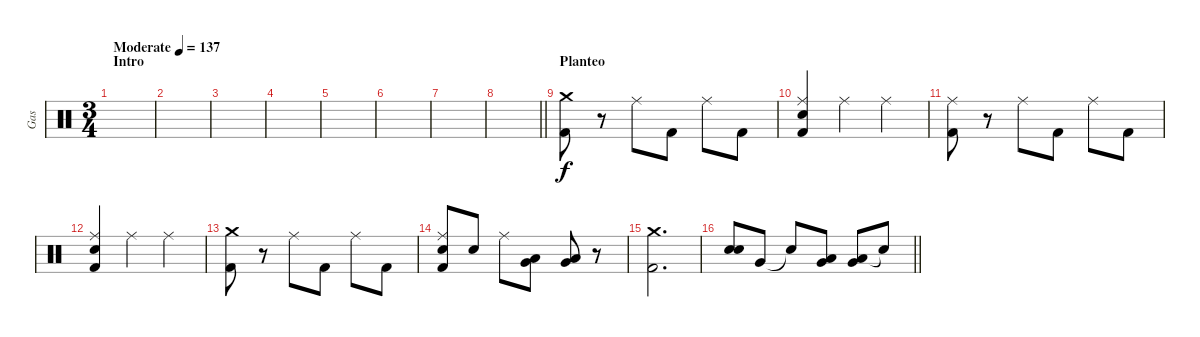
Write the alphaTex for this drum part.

\track ("Gas" "Gas") {instrument percussion}
\staff {score}
\articulation defaults
\ts (3 4)
\section ("" "Intro")
\tempo (137 "Moderate")
\clef neutral
\ks c
|
|
|
|
|
|
|
\barLineRight lightlight
|
\section ("" "Planteo")
("Crash medium (hit)" "Kick (hit) 2").8 r.8 "Ride (middle)".8 "Kick (hit) 2".8 "Ride (middle)".8 "Kick (hit) 2".8 |
("Ride (middle)" "Snare (hit) 2" "Kick (hit) 2").4 "Ride (middle)".4 "Ride (middle)".4 |
("Ride (middle)" "Kick (hit) 2").8 r.8 "Ride (middle)".8 "Kick (hit) 2".8 "Ride (middle)".8 "Kick (hit) 2".8 |
("Ride (middle)" "Snare (hit) 2" "Kick (hit) 2").4 "Ride (middle)".4 "Ride (middle)".4 |
("Crash medium (hit)" "Kick (hit) 2").8 r.8 "Ride (middle)".8 "Kick (hit) 2".8 "Ride (middle)".8 "Kick (hit) 2".8 |
("Ride (middle)" "Snare (hit) 2" "Kick (hit) 2").8 "Snare (hit) 2".8 "Ride (middle)".8 ("Low Tom (hit)" "Very Low Tom (hit)").8{bd 60} ("Low Tom (hit)" "Very Low Tom (hit)").8{bd 60} r.8 |
("Crash medium (hit)" "Kick (hit) 2").2{d} |
\barLineRight lightlight
("Snare (hit) 2" "Snare (hit) 2").8{bd 60} "Very Low Tom (hit)".8 "Snare (hit)"{t}.8 ("Low Tom (hit)" "Very Low Tom (hit)").8{bd 60} ("Low Tom (hit)" "Very Low Tom (hit)").8{bd 60} "Snare (hit)"{t}.8
